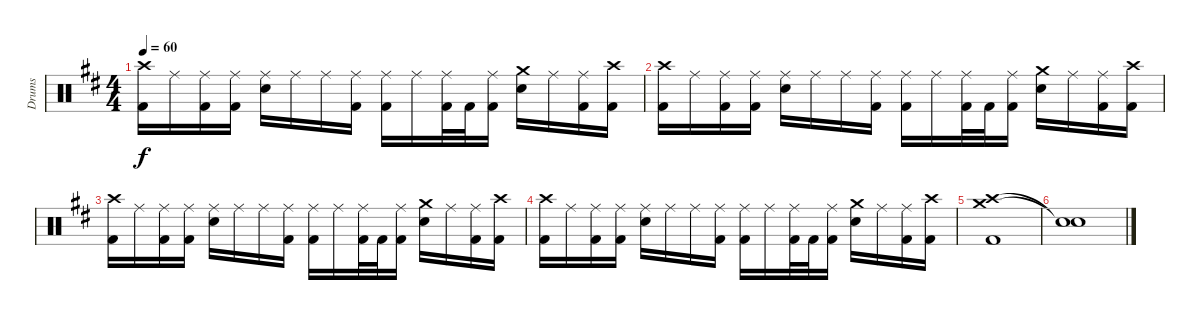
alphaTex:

\track ("Drums" "Drums") {instrument percussion}
\staff {score}
\articulation defaults
\ts (4 4)
\tempo 60
\clef neutral
\ks bminor
("Crash high (hit)" "Kick (hit) 2").16{dy f} "Ride (middle)".16 ("Ride (middle)" "Kick (hit) 2").16 ("Ride (middle)" "Kick (hit) 2").16 ("Ride (middle)" "Snare (hit) 2").16 "Ride (middle)".16 "Ride (middle)".16 ("Ride (middle)" "Kick (hit) 2").16 ("Ride (middle)" "Kick (hit) 2").16 "Ride (middle)".16 ("Ride (middle)" "Kick (hit) 2").32 "Kick (hit) 2".32 ("Ride (middle)" "Kick (hit) 2").16 ("Crash medium (hit)" "Snare (hit) 2").16 "Ride (middle)".16 ("Ride (middle)" "Kick (hit) 2").16 ("Crash high (hit)" "Kick (hit) 2").16 |
("Crash high (hit)" "Kick (hit) 2").16 "Ride (middle)".16 ("Ride (middle)" "Kick (hit) 2").16 ("Ride (middle)" "Kick (hit) 2").16 ("Ride (middle)" "Snare (hit) 2").16 "Ride (middle)".16 "Ride (middle)".16 ("Ride (middle)" "Kick (hit) 2").16 ("Ride (middle)" "Kick (hit) 2").16 "Ride (middle)".16 ("Ride (middle)" "Kick (hit) 2").32 "Kick (hit) 2".32 ("Ride (middle)" "Kick (hit) 2").16 ("Crash medium (hit)" "Snare (hit) 2").16 "Ride (middle)".16 ("Ride (middle)" "Kick (hit) 2").16 ("Crash high (hit)" "Kick (hit) 2").16 |
("Crash high (hit)" "Kick (hit) 2").16 "Ride (middle)".16 ("Ride (middle)" "Kick (hit) 2").16 ("Ride (middle)" "Kick (hit) 2").16 ("Ride (middle)" "Snare (hit) 2").16 "Ride (middle)".16 "Ride (middle)".16 ("Ride (middle)" "Kick (hit) 2").16 ("Ride (middle)" "Kick (hit) 2").16 "Ride (middle)".16 ("Ride (middle)" "Kick (hit) 2").32 "Kick (hit) 2".32 ("Ride (middle)" "Kick (hit) 2").16 ("Crash medium (hit)" "Snare (hit) 2").16 "Ride (middle)".16 ("Ride (middle)" "Kick (hit) 2").16 ("Crash high (hit)" "Kick (hit) 2").16 |
("Crash high (hit)" "Kick (hit) 2").16 "Ride (middle)".16 ("Ride (middle)" "Kick (hit) 2").16 ("Ride (middle)" "Kick (hit) 2").16 ("Ride (middle)" "Snare (hit) 2").16 "Ride (middle)".16 "Ride (middle)".16 ("Ride (middle)" "Kick (hit) 2").16 ("Ride (middle)" "Kick (hit) 2").16 "Ride (middle)".16 ("Ride (middle)" "Kick (hit) 2").32 "Kick (hit) 2".32 ("Ride (middle)" "Kick (hit) 2").16 ("Crash medium (hit)" "Snare (hit) 2").16 "Ride (middle)".16 ("Ride (middle)" "Kick (hit) 2").16 ("Crash high (hit)" "Kick (hit) 2").16 |
("Crash high (hit)" "Crash medium (hit)" "Kick (hit) 2").1 |
("Snare (hit)"{t} "Snare (hit)"{t}).1
